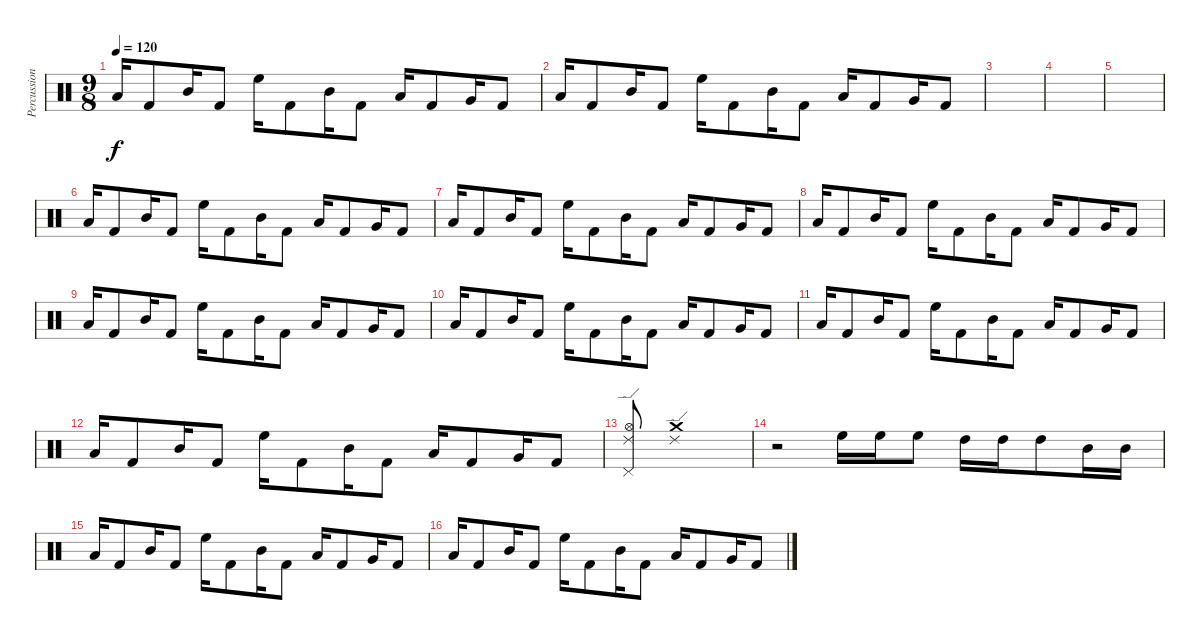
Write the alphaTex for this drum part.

\track ("Percussion" "Percussion") {instrument percussion}
\staff {score}
\articulation defaults
\ts (9 8)
\tempo 120
\clef neutral
\ks c "Low Tom (hit)".16{dy f} "Kick (hit) 2".8 "Mid Tom (hit)".16 "Kick (hit) 2".8 "High Floor Tom (hit)".16 "Kick (hit) 2".8 "Mid Tom (hit)".16 "Kick (hit) 2".8 "Low Tom (hit)".16 "Kick (hit) 2".8 "Very Low Tom (hit)".16 "Kick (hit) 2".8
|
"Low Tom (hit)".16 "Kick (hit) 2".8 "Mid Tom (hit)".16 "Kick (hit) 2".8 "High Floor Tom (hit)".16 "Kick (hit) 2".8 "Mid Tom (hit)".16 "Kick (hit) 2".8 "Low Tom (hit)".16 "Kick (hit) 2".8 "Very Low Tom (hit)".16 "Kick (hit) 2".8 |
|
|
|
"Low Tom (hit)".16 "Kick (hit) 2".8 "Mid Tom (hit)".16 "Kick (hit) 2".8 "High Floor Tom (hit)".16 "Kick (hit) 2".8 "Mid Tom (hit)".16 "Kick (hit) 2".8 "Low Tom (hit)".16 "Kick (hit) 2".8 "Very Low Tom (hit)".16 "Kick (hit) 2".8 |
"Low Tom (hit)".16 "Kick (hit) 2".8 "Mid Tom (hit)".16 "Kick (hit) 2".8 "High Floor Tom (hit)".16 "Kick (hit) 2".8 "Mid Tom (hit)".16 "Kick (hit) 2".8 "Low Tom (hit)".16 "Kick (hit) 2".8 "Very Low Tom (hit)".16 "Kick (hit) 2".8 |
"Low Tom (hit)".16 "Kick (hit) 2".8 "Mid Tom (hit)".16 "Kick (hit) 2".8 "High Floor Tom (hit)".16 "Kick (hit) 2".8 "Mid Tom (hit)".16 "Kick (hit) 2".8 "Low Tom (hit)".16 "Kick (hit) 2".8 "Very Low Tom (hit)".16 "Kick (hit) 2".8 |
"Low Tom (hit)".16 "Kick (hit) 2".8 "Mid Tom (hit)".16 "Kick (hit) 2".8 "High Floor Tom (hit)".16 "Kick (hit) 2".8 "Mid Tom (hit)".16 "Kick (hit) 2".8 "Low Tom (hit)".16 "Kick (hit) 2".8 "Very Low Tom (hit)".16 "Kick (hit) 2".8 |
"Low Tom (hit)".16 "Kick (hit) 2".8 "Mid Tom (hit)".16 "Kick (hit) 2".8 "High Floor Tom (hit)".16 "Kick (hit) 2".8 "Mid Tom (hit)".16 "Kick (hit) 2".8 "Low Tom (hit)".16 "Kick (hit) 2".8 "Very Low Tom (hit)".16 "Kick (hit) 2".8 |
"Low Tom (hit)".16 "Kick (hit) 2".8 "Mid Tom (hit)".16 "Kick (hit) 2".8 "High Floor Tom (hit)".16 "Kick (hit) 2".8 "Mid Tom (hit)".16 "Kick (hit) 2".8 "Low Tom (hit)".16 "Kick (hit) 2".8 "Very Low Tom (hit)".16 "Kick (hit) 2".8 |
"Low Tom (hit)".16 "Kick (hit) 2".8 "Mid Tom (hit)".16 "Kick (hit) 2".8 "High Floor Tom (hit)".16 "Kick (hit) 2".8 "Mid Tom (hit)".16 "Kick (hit) 2".8 "Low Tom (hit)".16 "Kick (hit) 2".8 "Very Low Tom (hit)".16 "Kick (hit) 2".8 |
("Pedal Hi-Hat (hit)" "Hi-Hat (open)" "Ride (edge) 2").8 ("Crash medium (hit)" "Ride (edge) 2").1 |
r.2 "High Floor Tom (hit)".16 "High Floor Tom (hit)".16 "High Floor Tom (hit)".8 "High Tom (hit)".16 "High Tom (hit)".16 "High Tom (hit)".8 "Mid Tom (hit)".16 "Mid Tom (hit)".16 |
"Low Tom (hit)".16 "Kick (hit) 2".8 "Mid Tom (hit)".16 "Kick (hit) 2".8 "High Floor Tom (hit)".16 "Kick (hit) 2".8 "Mid Tom (hit)".16 "Kick (hit) 2".8 "Low Tom (hit)".16 "Kick (hit) 2".8 "Very Low Tom (hit)".16 "Kick (hit) 2".8 |
"Low Tom (hit)".16 "Kick (hit) 2".8 "Mid Tom (hit)".16 "Kick (hit) 2".8 "High Floor Tom (hit)".16 "Kick (hit) 2".8 "Mid Tom (hit)".16 "Kick (hit) 2".8 "Low Tom (hit)".16 "Kick (hit) 2".8 "Very Low Tom (hit)".16 "Kick (hit) 2".8
